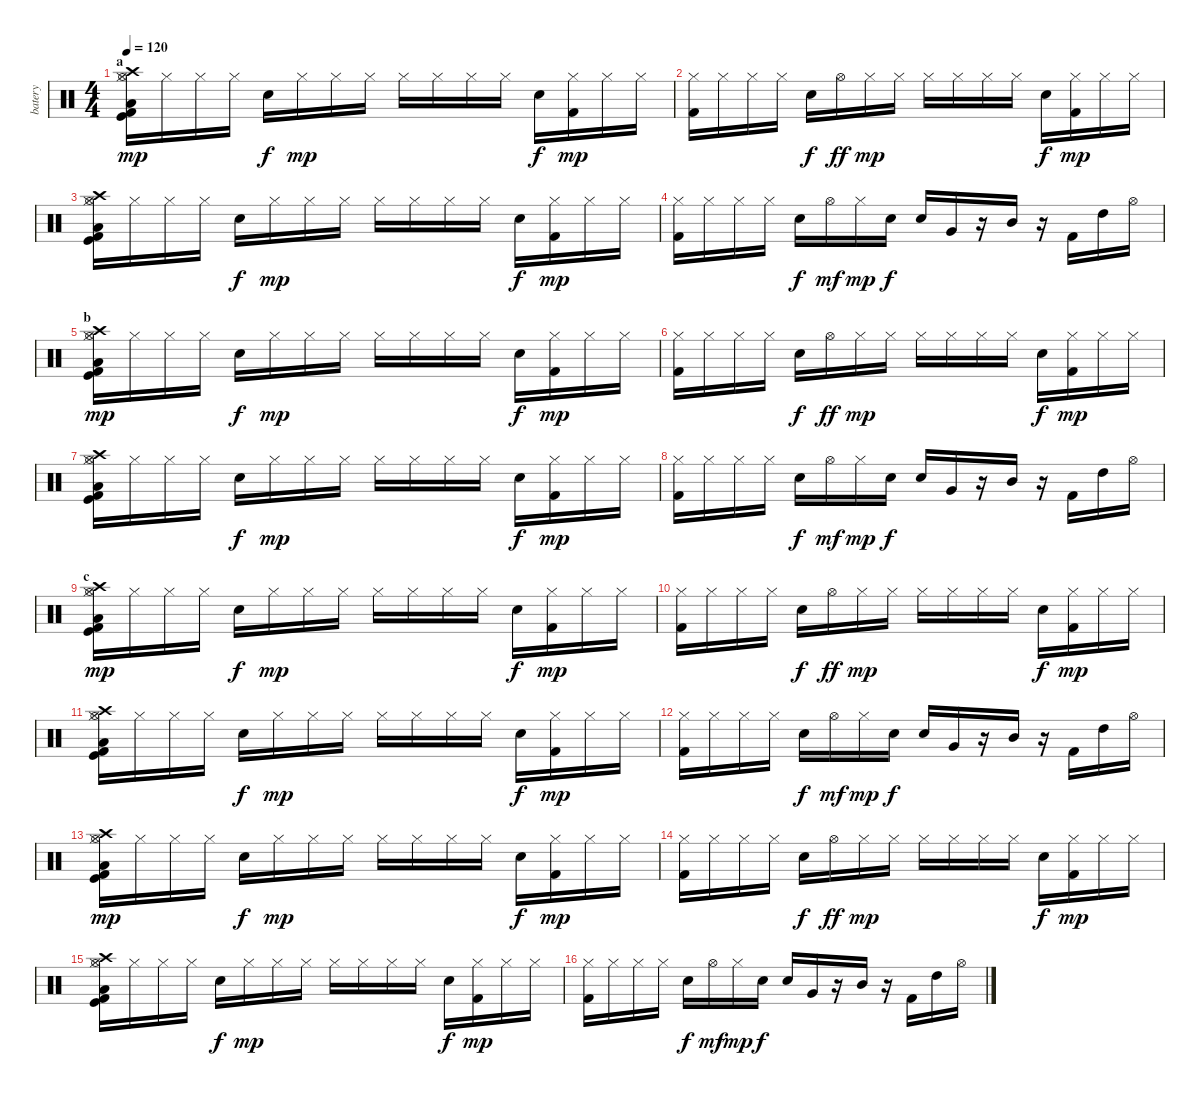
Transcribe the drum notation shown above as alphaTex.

\track ("batery" "batery") {instrument percussion}
\staff {score}
\articulation defaults
\ts (4 4)
\section ("" "a")
\tempo 120
\clef neutral
\ks c
("Hi-Hat (closed)" "Kick (hit) 2" "Low Tom (hit)" "Crash high (hit)" "Hi-Hat (open)" "Kick (hit)").16{dy mp} "Hi-Hat (closed)".16 "Hi-Hat (closed)".16 "Hi-Hat (closed)".16 "Electric Snare (hit)".16{dy f} "Hi-Hat (closed)".16{dy mp} "Hi-Hat (closed)".16 "Hi-Hat (closed)".16 "Hi-Hat (closed)".16 "Hi-Hat (closed)".16 "Hi-Hat (closed)".16 "Hi-Hat (closed)".16 "Electric Snare (hit)".16{dy f} ("Hi-Hat (closed)" "Kick (hit) 2").16{dy mp} "Hi-Hat (closed)".16 "Hi-Hat (closed)".16 |
("Hi-Hat (closed)" "Kick (hit) 2").16 "Hi-Hat (closed)".16 "Hi-Hat (closed)".16 "Hi-Hat (closed)".16 "Electric Snare (hit)".16{dy f} "Hi-Hat (open)".16{dy ff} "Hi-Hat (closed)".16{dy mp} "Hi-Hat (closed)".16 "Hi-Hat (closed)".16 "Hi-Hat (closed)".16 "Hi-Hat (closed)".16 "Hi-Hat (closed)".16 "Electric Snare (hit)".16{dy f} ("Hi-Hat (closed)" "Kick (hit) 2").16{dy mp} "Hi-Hat (closed)".16 "Hi-Hat (closed)".16 |
("Hi-Hat (closed)" "Kick (hit) 2" "Low Tom (hit)" "Crash high (hit)" "Hi-Hat (open)" "Kick (hit)").16 "Hi-Hat (closed)".16 "Hi-Hat (closed)".16 "Hi-Hat (closed)".16 "Electric Snare (hit)".16{dy f} "Hi-Hat (closed)".16{dy mp} "Hi-Hat (closed)".16 "Hi-Hat (closed)".16 "Hi-Hat (closed)".16 "Hi-Hat (closed)".16 "Hi-Hat (closed)".16 "Hi-Hat (closed)".16 "Electric Snare (hit)".16{dy f} ("Hi-Hat (closed)" "Kick (hit) 2").16{dy mp} "Hi-Hat (closed)".16 "Hi-Hat (closed)".16 |
("Hi-Hat (closed)" "Kick (hit) 2").16 "Hi-Hat (closed)".16 "Hi-Hat (closed)".16 "Hi-Hat (closed)".16 "Electric Snare (hit)".16{dy f} "Hi-Hat (open)".16{dy mf} "Hi-Hat (closed)".16{dy mp} "Electric Snare (hit)".16{dy f} "Electric Snare (hit)".16 "Very Low Tom (hit)".16 r.16 "Mid Tom (hit)".16 r.16 "Kick (hit) 2".16 "High Tom (hit)".16 "Hi-Hat (open)".16 |
\section ("" "b")
("Hi-Hat (closed)" "Kick (hit) 2" "Low Tom (hit)" "Crash high (hit)" "Hi-Hat (open)" "Kick (hit)").16{dy mp} "Hi-Hat (closed)".16 "Hi-Hat (closed)".16 "Hi-Hat (closed)".16 "Electric Snare (hit)".16{dy f} "Hi-Hat (closed)".16{dy mp} "Hi-Hat (closed)".16 "Hi-Hat (closed)".16 "Hi-Hat (closed)".16 "Hi-Hat (closed)".16 "Hi-Hat (closed)".16 "Hi-Hat (closed)".16 "Electric Snare (hit)".16{dy f} ("Hi-Hat (closed)" "Kick (hit) 2").16{dy mp} "Hi-Hat (closed)".16 "Hi-Hat (closed)".16 |
("Hi-Hat (closed)" "Kick (hit) 2").16 "Hi-Hat (closed)".16 "Hi-Hat (closed)".16 "Hi-Hat (closed)".16 "Electric Snare (hit)".16{dy f} "Hi-Hat (open)".16{dy ff} "Hi-Hat (closed)".16{dy mp} "Hi-Hat (closed)".16 "Hi-Hat (closed)".16 "Hi-Hat (closed)".16 "Hi-Hat (closed)".16 "Hi-Hat (closed)".16 "Electric Snare (hit)".16{dy f} ("Hi-Hat (closed)" "Kick (hit) 2").16{dy mp} "Hi-Hat (closed)".16 "Hi-Hat (closed)".16 |
("Hi-Hat (closed)" "Kick (hit) 2" "Low Tom (hit)" "Crash high (hit)" "Hi-Hat (open)" "Kick (hit)").16 "Hi-Hat (closed)".16 "Hi-Hat (closed)".16 "Hi-Hat (closed)".16 "Electric Snare (hit)".16{dy f} "Hi-Hat (closed)".16{dy mp} "Hi-Hat (closed)".16 "Hi-Hat (closed)".16 "Hi-Hat (closed)".16 "Hi-Hat (closed)".16 "Hi-Hat (closed)".16 "Hi-Hat (closed)".16 "Electric Snare (hit)".16{dy f} ("Hi-Hat (closed)" "Kick (hit) 2").16{dy mp} "Hi-Hat (closed)".16 "Hi-Hat (closed)".16 |
("Hi-Hat (closed)" "Kick (hit) 2").16 "Hi-Hat (closed)".16 "Hi-Hat (closed)".16 "Hi-Hat (closed)".16 "Electric Snare (hit)".16{dy f} "Hi-Hat (open)".16{dy mf} "Hi-Hat (closed)".16{dy mp} "Electric Snare (hit)".16{dy f} "Electric Snare (hit)".16 "Very Low Tom (hit)".16 r.16 "Mid Tom (hit)".16 r.16 "Kick (hit) 2".16 "High Tom (hit)".16 "Hi-Hat (open)".16 |
\section ("" "c")
("Hi-Hat (closed)" "Kick (hit) 2" "Low Tom (hit)" "Crash high (hit)" "Hi-Hat (open)" "Kick (hit)").16{dy mp} "Hi-Hat (closed)".16 "Hi-Hat (closed)".16 "Hi-Hat (closed)".16 "Electric Snare (hit)".16{dy f} "Hi-Hat (closed)".16{dy mp} "Hi-Hat (closed)".16 "Hi-Hat (closed)".16 "Hi-Hat (closed)".16 "Hi-Hat (closed)".16 "Hi-Hat (closed)".16 "Hi-Hat (closed)".16 "Electric Snare (hit)".16{dy f} ("Hi-Hat (closed)" "Kick (hit) 2").16{dy mp} "Hi-Hat (closed)".16 "Hi-Hat (closed)".16 |
("Hi-Hat (closed)" "Kick (hit) 2").16 "Hi-Hat (closed)".16 "Hi-Hat (closed)".16 "Hi-Hat (closed)".16 "Electric Snare (hit)".16{dy f} "Hi-Hat (open)".16{dy ff} "Hi-Hat (closed)".16{dy mp} "Hi-Hat (closed)".16 "Hi-Hat (closed)".16 "Hi-Hat (closed)".16 "Hi-Hat (closed)".16 "Hi-Hat (closed)".16 "Electric Snare (hit)".16{dy f} ("Hi-Hat (closed)" "Kick (hit) 2").16{dy mp} "Hi-Hat (closed)".16 "Hi-Hat (closed)".16 |
("Hi-Hat (closed)" "Kick (hit) 2" "Low Tom (hit)" "Crash high (hit)" "Hi-Hat (open)" "Kick (hit)").16 "Hi-Hat (closed)".16 "Hi-Hat (closed)".16 "Hi-Hat (closed)".16 "Electric Snare (hit)".16{dy f} "Hi-Hat (closed)".16{dy mp} "Hi-Hat (closed)".16 "Hi-Hat (closed)".16 "Hi-Hat (closed)".16 "Hi-Hat (closed)".16 "Hi-Hat (closed)".16 "Hi-Hat (closed)".16 "Electric Snare (hit)".16{dy f} ("Hi-Hat (closed)" "Kick (hit) 2").16{dy mp} "Hi-Hat (closed)".16 "Hi-Hat (closed)".16 |
("Hi-Hat (closed)" "Kick (hit) 2").16 "Hi-Hat (closed)".16 "Hi-Hat (closed)".16 "Hi-Hat (closed)".16 "Electric Snare (hit)".16{dy f} "Hi-Hat (open)".16{dy mf} "Hi-Hat (closed)".16{dy mp} "Electric Snare (hit)".16{dy f} "Electric Snare (hit)".16 "Very Low Tom (hit)".16 r.16 "Mid Tom (hit)".16 r.16 "Kick (hit) 2".16 "High Tom (hit)".16 "Hi-Hat (open)".16 |
("Hi-Hat (closed)" "Kick (hit) 2" "Low Tom (hit)" "Crash high (hit)" "Hi-Hat (open)" "Kick (hit)").16{dy mp} "Hi-Hat (closed)".16 "Hi-Hat (closed)".16 "Hi-Hat (closed)".16 "Electric Snare (hit)".16{dy f} "Hi-Hat (closed)".16{dy mp} "Hi-Hat (closed)".16 "Hi-Hat (closed)".16 "Hi-Hat (closed)".16 "Hi-Hat (closed)".16 "Hi-Hat (closed)".16 "Hi-Hat (closed)".16 "Electric Snare (hit)".16{dy f} ("Hi-Hat (closed)" "Kick (hit) 2").16{dy mp} "Hi-Hat (closed)".16 "Hi-Hat (closed)".16 |
("Hi-Hat (closed)" "Kick (hit) 2").16 "Hi-Hat (closed)".16 "Hi-Hat (closed)".16 "Hi-Hat (closed)".16 "Electric Snare (hit)".16{dy f} "Hi-Hat (open)".16{dy ff} "Hi-Hat (closed)".16{dy mp} "Hi-Hat (closed)".16 "Hi-Hat (closed)".16 "Hi-Hat (closed)".16 "Hi-Hat (closed)".16 "Hi-Hat (closed)".16 "Electric Snare (hit)".16{dy f} ("Hi-Hat (closed)" "Kick (hit) 2").16{dy mp} "Hi-Hat (closed)".16 "Hi-Hat (closed)".16 |
("Hi-Hat (closed)" "Kick (hit) 2" "Low Tom (hit)" "Crash high (hit)" "Hi-Hat (open)" "Kick (hit)").16 "Hi-Hat (closed)".16 "Hi-Hat (closed)".16 "Hi-Hat (closed)".16 "Electric Snare (hit)".16{dy f} "Hi-Hat (closed)".16{dy mp} "Hi-Hat (closed)".16 "Hi-Hat (closed)".16 "Hi-Hat (closed)".16 "Hi-Hat (closed)".16 "Hi-Hat (closed)".16 "Hi-Hat (closed)".16 "Electric Snare (hit)".16{dy f} ("Hi-Hat (closed)" "Kick (hit) 2").16{dy mp} "Hi-Hat (closed)".16 "Hi-Hat (closed)".16 |
("Hi-Hat (closed)" "Kick (hit) 2").16 "Hi-Hat (closed)".16 "Hi-Hat (closed)".16 "Hi-Hat (closed)".16 "Electric Snare (hit)".16{dy f} "Hi-Hat (open)".16{dy mf} "Hi-Hat (closed)".16{dy mp} "Electric Snare (hit)".16{dy f} "Electric Snare (hit)".16 "Very Low Tom (hit)".16 r.16 "Mid Tom (hit)".16 r.16 "Kick (hit) 2".16 "High Tom (hit)".16 "Hi-Hat (open)".16
